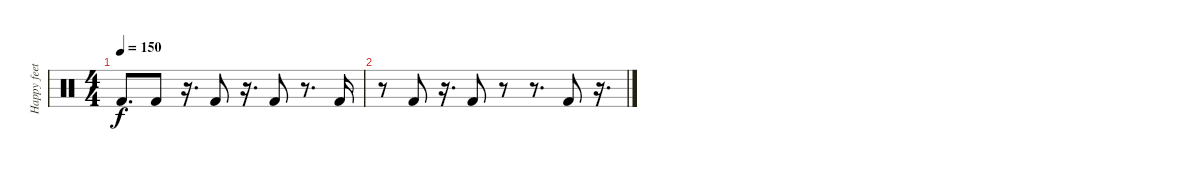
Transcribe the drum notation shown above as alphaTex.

\track ("Happy feet" "Happy feet") {instrument percussion}
\staff {score}
\articulation defaults
\ts (4 4)
\tempo 150
\clef neutral
\ks c "Kick (hit) 2".8{d dy f} "Kick (hit) 2".8
r.16{d} "Kick (hit) 2".8 r.16{d} "Kick (hit) 2".8 r.8{d} "Kick (hit) 2".16 |
r.8 "Kick (hit) 2".8 r.16{d} "Kick (hit) 2".8 r.8 r.8{d} "Kick (hit) 2".8 r.16{d}
